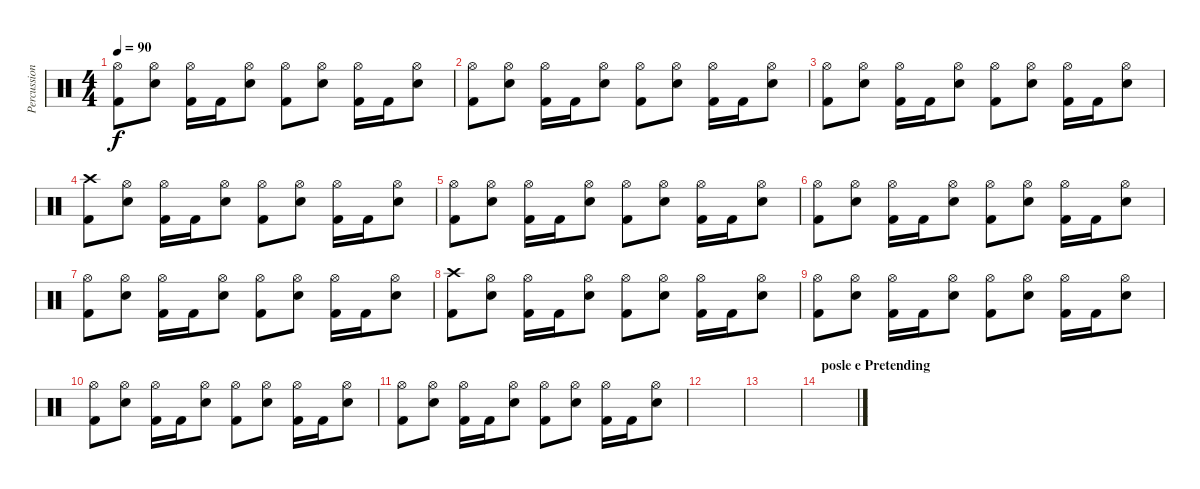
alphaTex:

\track ("Percussion" "Percussion") {instrument percussion}
\staff {score}
\articulation defaults
\ts (4 4)
\tempo 90
\clef neutral
\ks c
("Kick (hit) 2" "Hi-Hat (open)").8{dy f} ("Snare (hit) 2" "Hi-Hat (open)").8 ("Kick (hit) 2" "Hi-Hat (open)").16 "Kick (hit) 2".16 ("Snare (hit) 2" "Hi-Hat (open)").8 ("Kick (hit) 2" "Hi-Hat (open)").8 ("Snare (hit) 2" "Hi-Hat (open)").8 ("Kick (hit) 2" "Hi-Hat (open)").16 "Kick (hit) 2".16 ("Snare (hit) 2" "Hi-Hat (open)").8 |
("Kick (hit) 2" "Hi-Hat (open)").8 ("Snare (hit) 2" "Hi-Hat (open)").8 ("Kick (hit) 2" "Hi-Hat (open)").16 "Kick (hit) 2".16 ("Snare (hit) 2" "Hi-Hat (open)").8 ("Kick (hit) 2" "Hi-Hat (open)").8 ("Snare (hit) 2" "Hi-Hat (open)").8 ("Kick (hit) 2" "Hi-Hat (open)").16 "Kick (hit) 2".16 ("Snare (hit) 2" "Hi-Hat (open)").8 |
("Kick (hit) 2" "Hi-Hat (open)").8 ("Snare (hit) 2" "Hi-Hat (open)").8 ("Kick (hit) 2" "Hi-Hat (open)").16 "Kick (hit) 2".16 ("Snare (hit) 2" "Hi-Hat (open)").8 ("Kick (hit) 2" "Hi-Hat (open)").8 ("Snare (hit) 2" "Hi-Hat (open)").8 ("Kick (hit) 2" "Hi-Hat (open)").16 "Kick (hit) 2".16 ("Snare (hit) 2" "Hi-Hat (open)").8 |
("Kick (hit) 2" "Crash high (hit)").8 ("Snare (hit) 2" "Hi-Hat (open)").8 ("Kick (hit) 2" "Hi-Hat (open)").16 "Kick (hit) 2".16 ("Snare (hit) 2" "Hi-Hat (open)").8 ("Kick (hit) 2" "Hi-Hat (open)").8 ("Snare (hit) 2" "Hi-Hat (open)").8 ("Kick (hit) 2" "Hi-Hat (open)").16 "Kick (hit) 2".16 ("Snare (hit) 2" "Hi-Hat (open)").8 |
("Kick (hit) 2" "Hi-Hat (open)").8 ("Snare (hit) 2" "Hi-Hat (open)").8 ("Kick (hit) 2" "Hi-Hat (open)").16 "Kick (hit) 2".16 ("Snare (hit) 2" "Hi-Hat (open)").8 ("Kick (hit) 2" "Hi-Hat (open)").8 ("Snare (hit) 2" "Hi-Hat (open)").8 ("Kick (hit) 2" "Hi-Hat (open)").16 "Kick (hit) 2".16 ("Snare (hit) 2" "Hi-Hat (open)").8 |
("Kick (hit) 2" "Hi-Hat (open)").8 ("Snare (hit) 2" "Hi-Hat (open)").8 ("Kick (hit) 2" "Hi-Hat (open)").16 "Kick (hit) 2".16 ("Snare (hit) 2" "Hi-Hat (open)").8 ("Kick (hit) 2" "Hi-Hat (open)").8 ("Snare (hit) 2" "Hi-Hat (open)").8 ("Kick (hit) 2" "Hi-Hat (open)").16 "Kick (hit) 2".16 ("Snare (hit) 2" "Hi-Hat (open)").8 |
("Kick (hit) 2" "Hi-Hat (open)").8 ("Snare (hit) 2" "Hi-Hat (open)").8 ("Kick (hit) 2" "Hi-Hat (open)").16 "Kick (hit) 2".16 ("Snare (hit) 2" "Hi-Hat (open)").8 ("Kick (hit) 2" "Hi-Hat (open)").8 ("Snare (hit) 2" "Hi-Hat (open)").8 ("Kick (hit) 2" "Hi-Hat (open)").16 "Kick (hit) 2".16 ("Snare (hit) 2" "Hi-Hat (open)").8 |
("Kick (hit) 2" "Crash high (hit)").8 ("Snare (hit) 2" "Hi-Hat (open)").8 ("Kick (hit) 2" "Hi-Hat (open)").16 "Kick (hit) 2".16 ("Snare (hit) 2" "Hi-Hat (open)").8 ("Kick (hit) 2" "Hi-Hat (open)").8 ("Snare (hit) 2" "Hi-Hat (open)").8 ("Kick (hit) 2" "Hi-Hat (open)").16 "Kick (hit) 2".16 ("Snare (hit) 2" "Hi-Hat (open)").8 |
("Kick (hit) 2" "Hi-Hat (open)").8 ("Snare (hit) 2" "Hi-Hat (open)").8 ("Kick (hit) 2" "Hi-Hat (open)").16 "Kick (hit) 2".16 ("Snare (hit) 2" "Hi-Hat (open)").8 ("Kick (hit) 2" "Hi-Hat (open)").8 ("Snare (hit) 2" "Hi-Hat (open)").8 ("Kick (hit) 2" "Hi-Hat (open)").16 "Kick (hit) 2".16 ("Snare (hit) 2" "Hi-Hat (open)").8 |
("Kick (hit) 2" "Hi-Hat (open)").8 ("Snare (hit) 2" "Hi-Hat (open)").8 ("Kick (hit) 2" "Hi-Hat (open)").16 "Kick (hit) 2".16 ("Snare (hit) 2" "Hi-Hat (open)").8 ("Kick (hit) 2" "Hi-Hat (open)").8 ("Snare (hit) 2" "Hi-Hat (open)").8 ("Kick (hit) 2" "Hi-Hat (open)").16 "Kick (hit) 2".16 ("Snare (hit) 2" "Hi-Hat (open)").8 |
("Kick (hit) 2" "Hi-Hat (open)").8 ("Snare (hit) 2" "Hi-Hat (open)").8 ("Kick (hit) 2" "Hi-Hat (open)").16 "Kick (hit) 2".16 ("Snare (hit) 2" "Hi-Hat (open)").8 ("Kick (hit) 2" "Hi-Hat (open)").8 ("Snare (hit) 2" "Hi-Hat (open)").8 ("Kick (hit) 2" "Hi-Hat (open)").16 "Kick (hit) 2".16 ("Snare (hit) 2" "Hi-Hat (open)").8 |
|
|
\section ("" "posle e Pretending")
